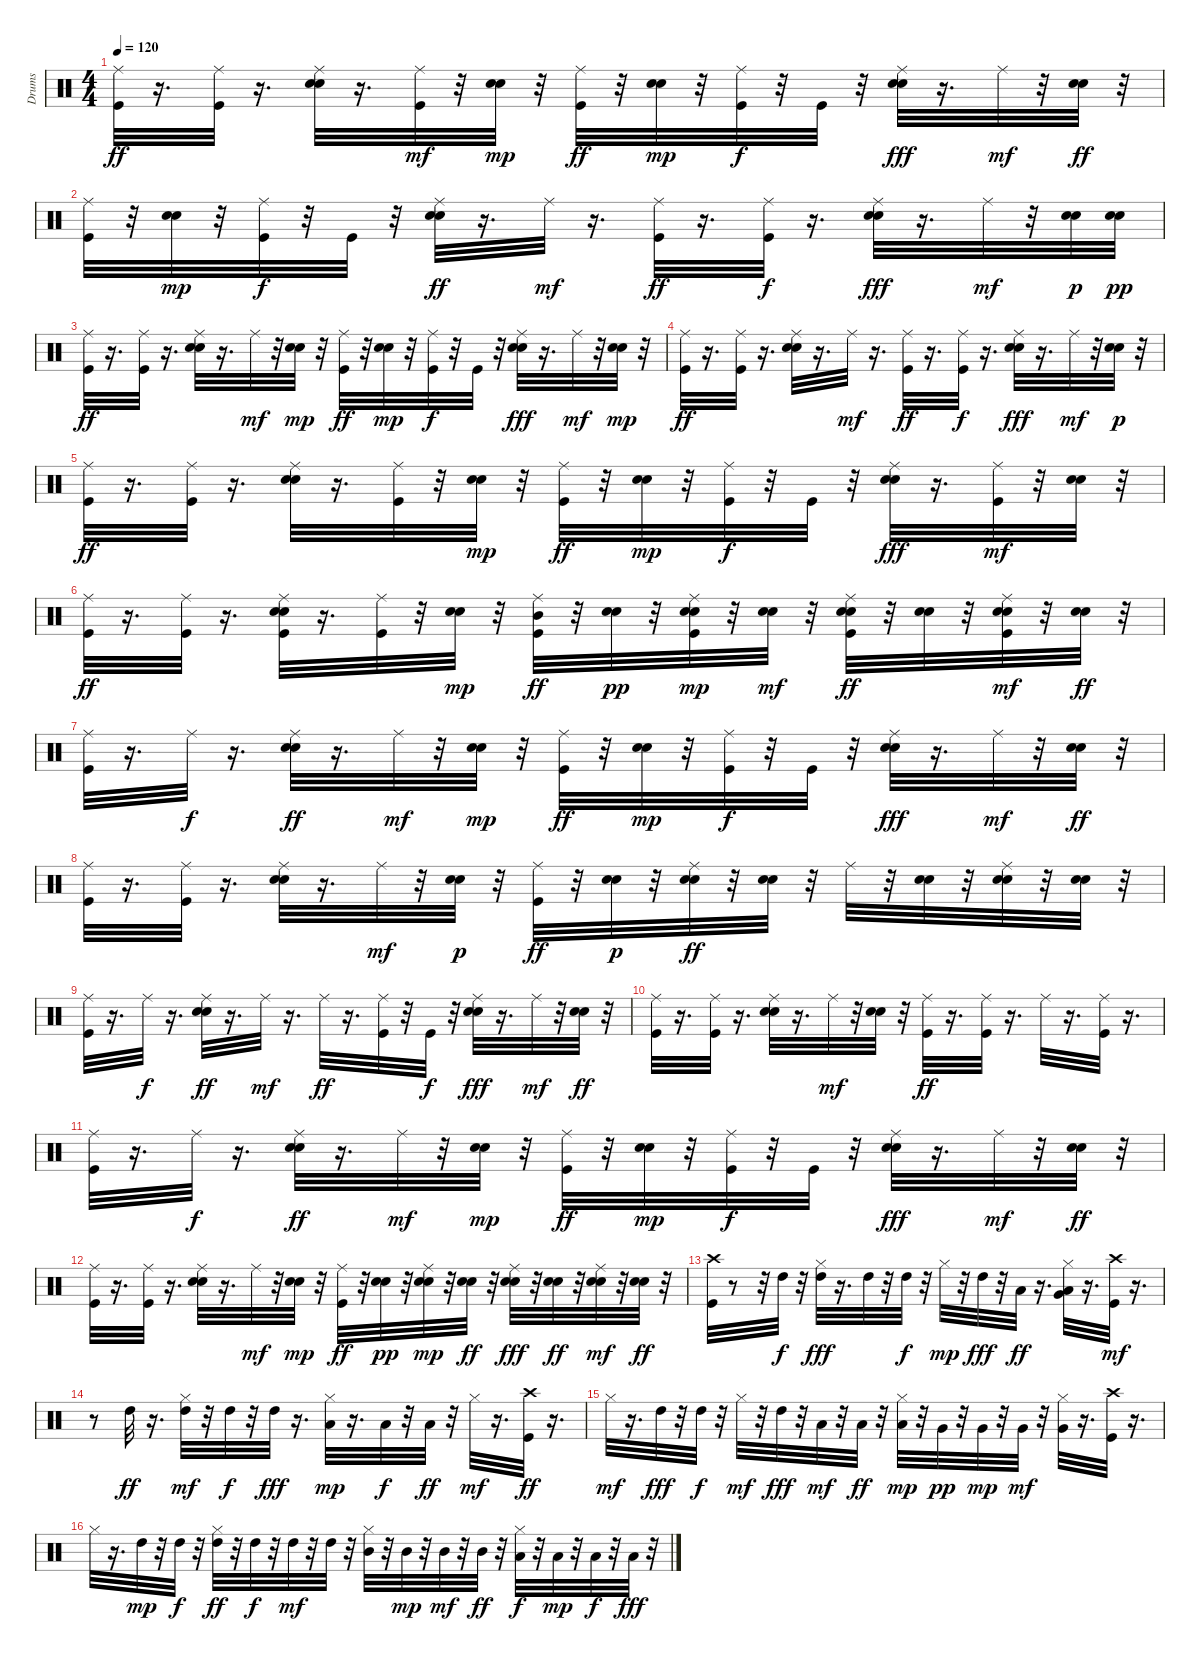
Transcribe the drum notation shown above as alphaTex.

\track ("Drums" "Drums") {instrument percussion}
\staff {score}
\articulation defaults
\ts (4 4)
\tempo 120
\clef neutral
\ks c
("Ride (middle)" "Kick (hit)").32{dy ff} r.16{d} ("Kick (hit)" "Ride (middle)").32 r.16{d} ("Electric Snare (hit)" "Snare (hit) 2" "Ride (middle)").32 r.16{d} ("Ride (middle)" "Kick (hit)").32{dy mf} r.32 ("Electric Snare (hit)" "Snare (hit) 2").32{dy mp} r.32 ("Ride (middle)" "Kick (hit)").32{dy ff} r.32 ("Snare (hit) 2" "Electric Snare (hit)").32{dy mp} r.32 ("Ride (middle)" "Kick (hit)").32{dy f} r.32 "Kick (hit)".32 r.32 ("Ride (middle)" "Snare (hit) 2" "Electric Snare (hit)").32{dy fff} r.16{d} "Ride (middle)".32{dy mf} r.32 ("Snare (hit) 2" "Electric Snare (hit)").32{dy ff} r.32 |
("Ride (middle)" "Kick (hit)").32 r.32 ("Electric Snare (hit)" "Snare (hit) 2").32{dy mp} r.32 ("Kick (hit)" "Ride (middle)").32{dy f} r.32 "Kick (hit)".32 r.32 ("Snare (hit) 2" "Electric Snare (hit)" "Ride (middle)").32{dy ff} r.16{d} "Ride (middle)".32{dy mf} r.16{d} ("Ride (middle)" "Kick (hit)").32{dy ff} r.16{d} ("Kick (hit)" "Ride (middle)").32{dy f} r.16{d} ("Ride (middle)" "Snare (hit) 2" "Electric Snare (hit)").32{dy fff} r.16{d} "Ride (middle)".32{dy mf} r.32 ("Snare (hit) 2" "Electric Snare (hit)").32{dy p} ("Snare (hit) 2" "Electric Snare (hit)").32{dy pp} |
("Ride (middle)" "Kick (hit)").32{dy ff} r.16{d} ("Kick (hit)" "Ride (middle)").32 r.16{d} ("Electric Snare (hit)" "Snare (hit) 2" "Ride (middle)").32 r.16{d} "Ride (middle)".32{dy mf} r.32 ("Electric Snare (hit)" "Snare (hit) 2").32{dy mp} r.32 ("Ride (middle)" "Kick (hit)").32{dy ff} r.32 ("Electric Snare (hit)" "Snare (hit) 2").32{dy mp} r.32 ("Kick (hit)" "Ride (middle)").32{dy f} r.32 "Kick (hit)".32 r.32 ("Ride (middle)" "Snare (hit) 2" "Electric Snare (hit)").32{dy fff} r.16{d} "Ride (middle)".32{dy mf} r.32 ("Electric Snare (hit)" "Snare (hit) 2").32{dy mp} r.32 |
("Ride (middle)" "Kick (hit)").32{dy ff} r.16{d} ("Kick (hit)" "Ride (middle)").32 r.16{d} ("Electric Snare (hit)" "Snare (hit) 2" "Ride (middle)").32 r.16{d} "Ride (middle)".32{dy mf} r.16{d} ("Ride (middle)" "Kick (hit)").32{dy ff} r.16{d} ("Kick (hit)" "Ride (middle)").32{dy f} r.16{d} ("Ride (middle)" "Electric Snare (hit)" "Snare (hit) 2").32{dy fff} r.16{d} "Ride (middle)".32{dy mf} r.32 ("Electric Snare (hit)" "Snare (hit) 2").32{dy p} r.32 |
("Ride (middle)" "Kick (hit)").32{dy ff} r.16{d} ("Kick (hit)" "Ride (middle)").32 r.16{d} ("Electric Snare (hit)" "Snare (hit) 2" "Ride (middle)").32 r.16{d} ("Ride (middle)" "Kick (hit)").32 r.32 ("Electric Snare (hit)" "Snare (hit) 2").32{dy mp} r.32 ("Ride (middle)" "Kick (hit)").32{dy ff} r.32 ("Electric Snare (hit)" "Snare (hit) 2").32{dy mp} r.32 ("Ride (middle)" "Kick (hit)").32{dy f} r.32 "Kick (hit)".32 r.32 ("Ride (middle)" "Electric Snare (hit)" "Snare (hit) 2").32{dy fff} r.16{d} ("Kick (hit)" "Ride (middle)").32{dy mf} r.32 ("Electric Snare (hit)" "Snare (hit) 2").32 r.32 |
("Ride (middle)" "Kick (hit)").32{dy ff} r.16{d} ("Kick (hit)" "Ride (middle)").32 r.16{d} ("Kick (hit)" "Electric Snare (hit)" "Snare (hit) 2" "Ride (middle)").32 r.16{d} ("Ride (middle)" "Kick (hit)").32 r.32 ("Snare (hit) 2" "Electric Snare (hit)").32{dy mp} r.32 ("Ride (middle)" "Kick (hit)" "Mid Tom (hit)").32{dy ff} r.32 ("Electric Snare (hit)" "Snare (hit) 2").32{dy pp} r.32 ("Kick (hit)" "Ride (middle)" "Electric Snare (hit)" "Snare (hit) 2").32{dy mp} r.32 ("Electric Snare (hit)" "Snare (hit) 2").32{dy mf} r.32 ("Ride (middle)" "Snare (hit) 2" "Electric Snare (hit)" "Kick (hit)").32{dy ff} r.32 ("Electric Snare (hit)" "Snare (hit) 2").32 r.32 ("Electric Snare (hit)" "Kick (hit)" "Snare (hit) 2" "Ride (middle)").32{dy mf} r.32 ("Snare (hit) 2" "Electric Snare (hit)").32{dy ff} r.32 |
("Ride (middle)" "Kick (hit)").32 r.16{d} "Ride (middle)".32{dy f} r.16{d} ("Electric Snare (hit)" "Snare (hit) 2" "Ride (middle)").32{dy ff} r.16{d} "Ride (middle)".32{dy mf} r.32 ("Snare (hit) 2" "Electric Snare (hit)").32{dy mp} r.32 ("Ride (middle)" "Kick (hit)").32{dy ff} r.32 ("Snare (hit) 2" "Electric Snare (hit)").32{dy mp} r.32 ("Kick (hit)" "Ride (middle)").32{dy f} r.32 "Kick (hit)".32 r.32 ("Ride (middle)" "Electric Snare (hit)" "Snare (hit) 2").32{dy fff} r.16{d} "Ride (middle)".32{dy mf} r.32 ("Snare (hit) 2" "Electric Snare (hit)").32{dy ff} r.32 |
("Ride (middle)" "Kick (hit)").32 r.16{d} ("Kick (hit)" "Ride (middle)").32 r.16{d} ("Electric Snare (hit)" "Snare (hit) 2" "Ride (middle)").32 r.16{d} "Ride (middle)".32{dy mf} r.32 ("Electric Snare (hit)" "Snare (hit) 2").32{dy p} r.32 ("Ride (middle)" "Kick (hit)").32{dy ff} r.32 ("Snare (hit) 2" "Electric Snare (hit)").32{dy p} r.32 ("Ride (middle)" "Electric Snare (hit)" "Snare (hit) 2").32{dy ff} r.32 ("Snare (hit) 2" "Electric Snare (hit)").32 r.32 "Ride (middle)".32 r.32 ("Snare (hit) 2" "Electric Snare (hit)").32 r.32 ("Snare (hit) 2" "Ride (middle)" "Electric Snare (hit)").32 r.32 ("Electric Snare (hit)" "Snare (hit) 2").32 r.32 |
("Ride (middle)" "Kick (hit)").32 r.16{d} "Ride (middle)".32{dy f} r.16{d} ("Electric Snare (hit)" "Snare (hit) 2" "Ride (middle)").32{dy ff} r.16{d} "Ride (middle)".32{dy mf} r.16{d} "Ride (middle)".32{dy ff} r.16{d} ("Ride (middle)" "Kick (hit)").32 r.32 "Kick (hit)".32{dy f} r.32 ("Ride (middle)" "Snare (hit) 2" "Electric Snare (hit)").32{dy fff} r.16{d} "Ride (middle)".32{dy mf} r.32 ("Snare (hit) 2" "Electric Snare (hit)").32{dy ff} r.32 |
("Ride (middle)" "Kick (hit)").32 r.16{d} ("Kick (hit)" "Ride (middle)").32 r.16{d} ("Electric Snare (hit)" "Snare (hit) 2" "Ride (middle)").32 r.16{d} "Ride (middle)".32{dy mf} r.32 ("Electric Snare (hit)" "Snare (hit) 2").32 r.32 ("Ride (middle)" "Kick (hit)").32{dy ff} r.16{d} ("Ride (middle)" "Kick (hit)").32 r.16{d} "Ride (middle)".32 r.16{d} ("Ride (middle)" "Kick (hit)").32 r.16{d} |
("Ride (middle)" "Kick (hit)").32 r.16{d} "Ride (middle)".32{dy f} r.16{d} ("Snare (hit) 2" "Electric Snare (hit)" "Ride (middle)").32{dy ff} r.16{d} "Ride (middle)".32{dy mf} r.32 ("Snare (hit) 2" "Electric Snare (hit)").32{dy mp} r.32 ("Ride (middle)" "Kick (hit)").32{dy ff} r.32 ("Electric Snare (hit)" "Snare (hit) 2").32{dy mp} r.32 ("Kick (hit)" "Ride (middle)").32{dy f} r.32 "Kick (hit)".32 r.32 ("Ride (middle)" "Snare (hit) 2" "Electric Snare (hit)").32{dy fff} r.16{d} "Ride (middle)".32{dy mf} r.32 ("Snare (hit) 2" "Electric Snare (hit)").32{dy ff} r.32 |
("Ride (middle)" "Kick (hit)").32 r.16{d} ("Kick (hit)" "Ride (middle)").32 r.16{d} ("Snare (hit) 2" "Electric Snare (hit)" "Ride (middle)").32 r.16{d} "Ride (middle)".32{dy mf} r.32 ("Snare (hit) 2" "Electric Snare (hit)").32{dy mp} r.32 ("Ride (middle)" "Kick (hit)").32{dy ff} r.32 ("Electric Snare (hit)" "Snare (hit) 2").32{dy pp} r.32 ("Ride (middle)" "Electric Snare (hit)" "Snare (hit) 2").32{dy mp} r.32 ("Snare (hit) 2" "Electric Snare (hit)").32{dy ff} r.32 ("Ride (middle)" "Snare (hit) 2" "Electric Snare (hit)").32{dy fff} r.32 ("Snare (hit) 2" "Electric Snare (hit)").32{dy ff} r.32 ("Snare (hit) 2" "Electric Snare (hit)" "Ride (middle)").32{dy mf} r.32 ("Snare (hit) 2" "Electric Snare (hit)").32{dy ff} r.32 |
("Crash high (hit)" "Kick (hit)").32 r.8 r.32 "High Tom (hit)".32{dy f} r.32 ("Hi-Hat (closed)" "High Tom (hit)").32{dy fff} r.16{d} "High Tom (hit)".32 r.32 "High Tom (hit)".32{dy f} r.32 "Hi-Hat (closed)".32{dy mp} r.32 "High Tom (hit)".32{dy fff} r.32 "Low Tom (hit)".32{dy ff} r.16{d} ("Hi-Hat (closed)" "Low Tom (hit)" "Very Low Tom (hit)").32 r.16{d} ("Kick (hit)" "Crash high (hit)").32{dy mf} r.16{d} |
r.8 "High Tom (hit)".32{dy ff} r.16{d} ("High Tom (hit)" "Hi-Hat (closed)").32{dy mf} r.32 "High Tom (hit)".32{dy f} r.32 "High Tom (hit)".32{dy fff} r.16{d} ("Low Tom (hit)" "Hi-Hat (closed)").32{dy mp} r.16{d} "Low Tom (hit)".32{dy f} r.32 "Low Tom (hit)".32{dy ff} r.32 "Hi-Hat (closed)".32{dy mf} r.16{d} ("Crash high (hit)" "Kick (hit)").32{dy ff} r.16{d} |
"Hi-Hat (closed)".32{dy mf} r.16{d} "High Tom (hit)".32{dy fff} r.32 "High Tom (hit)".32{dy f} r.32 "Hi-Hat (closed)".32{dy mf} r.32 "High Tom (hit)".32{dy fff} r.32 "Low Tom (hit)".32{dy mf} r.32 "Low Tom (hit)".32{dy ff} r.32 ("Low Tom (hit)" "Hi-Hat (closed)").32{dy mp} r.32 "Very Low Tom (hit)".32{dy pp} r.32 "Very Low Tom (hit)".32{dy mp} r.32 "Very Low Tom (hit)".32{dy mf} r.32 ("Very Low Tom (hit)" "Hi-Hat (closed)").32 r.16{d} ("Kick (hit)" "Crash high (hit)").32 r.16{d} |
"Hi-Hat (closed)".32 r.16{d} "High Tom (hit)".32{dy mp} r.32 "High Tom (hit)".32{dy f} r.32 ("High Tom (hit)" "Hi-Hat (closed)").32{dy ff} r.32 "High Tom (hit)".32{dy f} r.32 "High Tom (hit)".32{dy mf} r.32 "High Tom (hit)".32 r.32 ("Mid Tom (hit)" "Hi-Hat (closed)").32 r.32 "Mid Tom (hit)".32{dy mp} r.32 "Mid Tom (hit)".32{dy mf} r.32 "Mid Tom (hit)".32{dy ff} r.32 ("Low Tom (hit)" "Hi-Hat (closed)").32{dy f} r.32 "Low Tom (hit)".32{dy mp} r.32 "Low Tom (hit)".32{dy f} r.32 "Low Tom (hit)".32{dy fff} r.32
